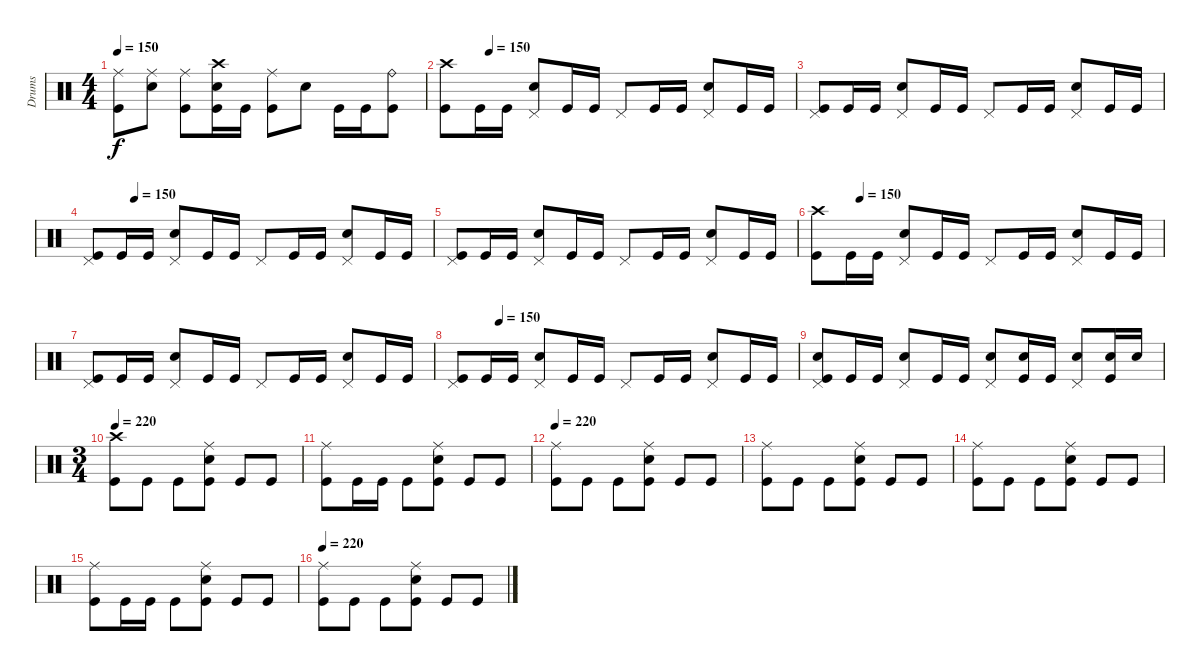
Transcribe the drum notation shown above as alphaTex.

\track ("Drums" "Drums") {instrument percussion}
\staff {score}
\articulation defaults
\ts (4 4)
\tempo 150
\clef neutral
\ks c
("Ride (middle)" "Kick (hit)").8{dy f} ("Ride (middle)" "Electric Snare (hit)").8 ("Ride (middle)" "Kick (hit)").8 ("Crash high (hit)" "Electric Snare (hit)" "Kick (hit)").16 "Kick (hit)".16 ("Ride (middle)" "Kick (hit)").8 "Electric Snare (hit)".8 "Kick (hit)".16 "Kick (hit)".16 ("Ride (bell)" "Kick (hit)").8 |
\tempo (150 0.125)
("Crash high (hit)" "Kick (hit)").8 "Kick (hit)".16 "Kick (hit)".16 ("Pedal Hi-Hat (hit)" "Electric Snare (hit)").8 "Kick (hit)".16 "Kick (hit)".16 "Pedal Hi-Hat (hit)".8 "Kick (hit)".16 "Kick (hit)".16 ("Pedal Hi-Hat (hit)" "Electric Snare (hit)").8 "Kick (hit)".16 "Kick (hit)".16 |
("Pedal Hi-Hat (hit)" "Kick (hit)").8 "Kick (hit)".16 "Kick (hit)".16 ("Pedal Hi-Hat (hit)" "Electric Snare (hit)").8 "Kick (hit)".16 "Kick (hit)".16 "Pedal Hi-Hat (hit)".8 "Kick (hit)".16 "Kick (hit)".16 ("Pedal Hi-Hat (hit)" "Electric Snare (hit)").8 "Kick (hit)".16 "Kick (hit)".16 |
\tempo (150 0.125)
("Pedal Hi-Hat (hit)" "Kick (hit)").8 "Kick (hit)".16 "Kick (hit)".16 ("Pedal Hi-Hat (hit)" "Electric Snare (hit)").8 "Kick (hit)".16 "Kick (hit)".16 "Pedal Hi-Hat (hit)".8 "Kick (hit)".16 "Kick (hit)".16 ("Pedal Hi-Hat (hit)" "Electric Snare (hit)").8 "Kick (hit)".16 "Kick (hit)".16 |
("Pedal Hi-Hat (hit)" "Kick (hit)").8 "Kick (hit)".16 "Kick (hit)".16 ("Pedal Hi-Hat (hit)" "Electric Snare (hit)").8 "Kick (hit)".16 "Kick (hit)".16 "Pedal Hi-Hat (hit)".8 "Kick (hit)".16 "Kick (hit)".16 ("Pedal Hi-Hat (hit)" "Electric Snare (hit)").8 "Kick (hit)".16 "Kick (hit)".16 |
\tempo (150 0.125)
("Crash high (hit)" "Kick (hit)").8 "Kick (hit)".16 "Kick (hit)".16 ("Pedal Hi-Hat (hit)" "Electric Snare (hit)").8 "Kick (hit)".16 "Kick (hit)".16 "Pedal Hi-Hat (hit)".8 "Kick (hit)".16 "Kick (hit)".16 ("Pedal Hi-Hat (hit)" "Electric Snare (hit)").8 "Kick (hit)".16 "Kick (hit)".16 |
("Pedal Hi-Hat (hit)" "Kick (hit)").8 "Kick (hit)".16 "Kick (hit)".16 ("Pedal Hi-Hat (hit)" "Electric Snare (hit)").8 "Kick (hit)".16 "Kick (hit)".16 "Pedal Hi-Hat (hit)".8 "Kick (hit)".16 "Kick (hit)".16 ("Pedal Hi-Hat (hit)" "Electric Snare (hit)").8 "Kick (hit)".16 "Kick (hit)".16 |
\tempo (150 0.125)
("Pedal Hi-Hat (hit)" "Kick (hit)").8 "Kick (hit)".16 "Kick (hit)".16 ("Pedal Hi-Hat (hit)" "Electric Snare (hit)").8 "Kick (hit)".16 "Kick (hit)".16 "Pedal Hi-Hat (hit)".8 "Kick (hit)".16 "Kick (hit)".16 ("Pedal Hi-Hat (hit)" "Electric Snare (hit)").8 "Kick (hit)".16 "Kick (hit)".16 |
("Pedal Hi-Hat (hit)" "Electric Snare (hit)" "Kick (hit)").8 "Kick (hit)".16 "Kick (hit)".16 ("Pedal Hi-Hat (hit)" "Electric Snare (hit)").8 "Kick (hit)".16 "Kick (hit)".16 ("Pedal Hi-Hat (hit)" "Electric Snare (hit)").8 ("Electric Snare (hit)" "Kick (hit)").16 "Kick (hit)".16 ("Pedal Hi-Hat (hit)" "Electric Snare (hit)").8 ("Electric Snare (hit)" "Kick (hit)").16 "Electric Snare (hit)".16 |
\ts (3 4)
\tempo 220
("Crash high (hit)" "Kick (hit)").8 "Kick (hit)".8 "Kick (hit)".8 ("Ride (middle)" "Electric Snare (hit)" "Kick (hit)").8 "Kick (hit)".8 "Kick (hit)".8 |
("Ride (middle)" "Kick (hit)").8 "Kick (hit)".16 "Kick (hit)".16 "Kick (hit)".8 ("Ride (middle)" "Electric Snare (hit)" "Kick (hit)").8 "Kick (hit)".8 "Kick (hit)".8 |
\tempo 220
("Ride (middle)" "Kick (hit)").8 "Kick (hit)".8 "Kick (hit)".8 ("Ride (middle)" "Electric Snare (hit)" "Kick (hit)").8 "Kick (hit)".8 "Kick (hit)".8 |
("Ride (middle)" "Kick (hit)").8 "Kick (hit)".8 "Kick (hit)".8 ("Ride (middle)" "Electric Snare (hit)" "Kick (hit)").8 "Kick (hit)".8 "Kick (hit)".8 |
("Ride (middle)" "Kick (hit)").8 "Kick (hit)".8 "Kick (hit)".8 ("Ride (middle)" "Electric Snare (hit)" "Kick (hit)").8 "Kick (hit)".8 "Kick (hit)".8 |
("Ride (middle)" "Kick (hit)").8 "Kick (hit)".16 "Kick (hit)".16 "Kick (hit)".8 ("Ride (middle)" "Electric Snare (hit)" "Kick (hit)").8 "Kick (hit)".8 "Kick (hit)".8 |
\tempo 220
("Ride (middle)" "Kick (hit)").8 "Kick (hit)".8 "Kick (hit)".8 ("Ride (middle)" "Electric Snare (hit)" "Kick (hit)").8 "Kick (hit)".8 "Kick (hit)".8
